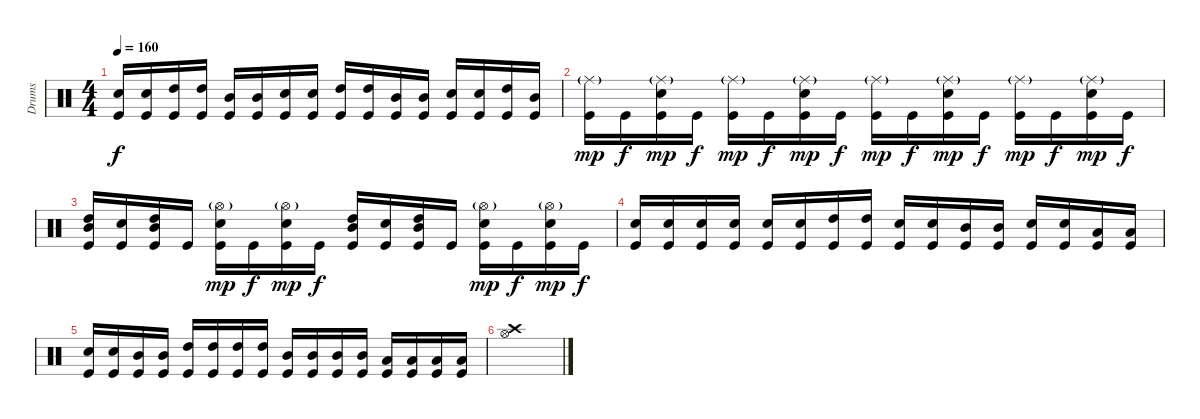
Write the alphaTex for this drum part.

\track ("Drums" "Drums") {instrument percussion}
\staff {score}
\articulation defaults
\ts (4 4)
\tempo 160
\clef neutral
\ks c
("Snare (hit) 2" "Kick (hit)").16{dy f} ("Snare (hit) 2" "Kick (hit)").16 ("High Tom (hit)" "Kick (hit)").16 ("High Tom (hit)" "Kick (hit)").16 ("Mid Tom (hit)" "Kick (hit)").16 ("Mid Tom (hit)" "Kick (hit)").16 ("Snare (hit) 2" "Kick (hit)").16 ("Snare (hit) 2" "Kick (hit)").16 ("High Tom (hit)" "Kick (hit)").16 ("High Tom (hit)" "Kick (hit)").16 ("Mid Tom (hit)" "Kick (hit)").16 ("Mid Tom (hit)" "Kick (hit)").16 ("Snare (hit) 2" "Kick (hit)").16 ("Snare (hit) 2" "Kick (hit)").16 ("High Tom (hit)" "Kick (hit)").16 ("Mid Tom (hit)" "Kick (hit)").16 |
("Ride (middle)"{g} "Kick (hit)").16{dy mp} "Kick (hit)".16{dy f} ("Ride (middle)"{g} "Snare (hit) 2" "Kick (hit)").16{dy mp} "Kick (hit)".16{dy f} ("Ride (middle)"{g} "Kick (hit)").16{dy mp} "Kick (hit)".16{dy f} ("Ride (middle)"{g} "Snare (hit) 2" "Kick (hit)").16{dy mp} "Kick (hit)".16{dy f} ("Ride (middle)"{g} "Kick (hit)").16{dy mp} "Kick (hit)".16{dy f} ("Ride (middle)"{g} "Snare (hit) 2" "Kick (hit)").16{dy mp} "Kick (hit)".16{dy f} ("Ride (middle)"{g} "Kick (hit)").16{dy mp} "Kick (hit)".16{dy f} ("Ride (middle)"{g} "Snare (hit) 2" "Kick (hit)").16{dy mp} "Kick (hit)".16{dy f} |
("Mid Tom (hit)" "High Tom (hit)" "Kick (hit)").16 ("Snare (hit) 2" "Kick (hit)").16 ("Mid Tom (hit)" "High Tom (hit)" "Kick (hit)").16 "Kick (hit)".16 ("Hi-Hat (open)"{g} "Snare (hit) 2" "Kick (hit)").16{dy mp} "Kick (hit)".16{dy f} ("Hi-Hat (open)"{g} "Snare (hit) 2" "Kick (hit)").16{dy mp} "Kick (hit)".16{dy f} ("Mid Tom (hit)" "High Tom (hit)" "Kick (hit)").16 ("Snare (hit) 2" "Kick (hit)").16 ("Mid Tom (hit)" "High Tom (hit)" "Kick (hit)").16 "Kick (hit)".16 ("Hi-Hat (open)"{g} "Snare (hit) 2" "Kick (hit)").16{dy mp} "Kick (hit)".16{dy f} ("Hi-Hat (open)"{g} "Snare (hit) 2" "Kick (hit)").16{dy mp} "Kick (hit)".16{dy f} |
("Snare (hit) 2" "Kick (hit)").16 ("Snare (hit) 2" "Kick (hit)").16 ("Snare (hit) 2" "Kick (hit)").16 ("Snare (hit) 2" "Kick (hit)").16 ("Snare (hit) 2" "Kick (hit)").16 ("Snare (hit) 2" "Kick (hit)").16 ("High Tom (hit)" "Kick (hit)").16 ("High Tom (hit)" "Kick (hit)").16 ("Snare (hit) 2" "Kick (hit)").16 ("Snare (hit) 2" "Kick (hit)").16 ("Mid Tom (hit)" "Kick (hit)").16 ("Mid Tom (hit)" "Kick (hit)").16 ("Snare (hit) 2" "Kick (hit)").16 ("Snare (hit) 2" "Kick (hit)").16 ("Low Tom (hit)" "Kick (hit)").16 ("Low Tom (hit)" "Kick (hit)").16 |
("Snare (hit) 2" "Kick (hit)").16 ("Snare (hit) 2" "Kick (hit)").16 ("Mid Tom (hit)" "Kick (hit)").16 ("Mid Tom (hit)" "Kick (hit)").16 ("High Tom (hit)" "Kick (hit)").16 ("High Tom (hit)" "Kick (hit)").16 ("High Tom (hit)" "Kick (hit)").16 ("High Tom (hit)" "Kick (hit)").16 ("Mid Tom (hit)" "Kick (hit)").16 ("Mid Tom (hit)" "Kick (hit)").16 ("Mid Tom (hit)" "Kick (hit)").16 ("Mid Tom (hit)" "Kick (hit)").16 ("Low Tom (hit)" "Kick (hit)").16 ("Low Tom (hit)" "Kick (hit)").16 ("Low Tom (hit)" "Kick (hit)").16 ("Low Tom (hit)" "Kick (hit)").16 |
("Crash high (hit)" "Hi-Hat (open)").1
